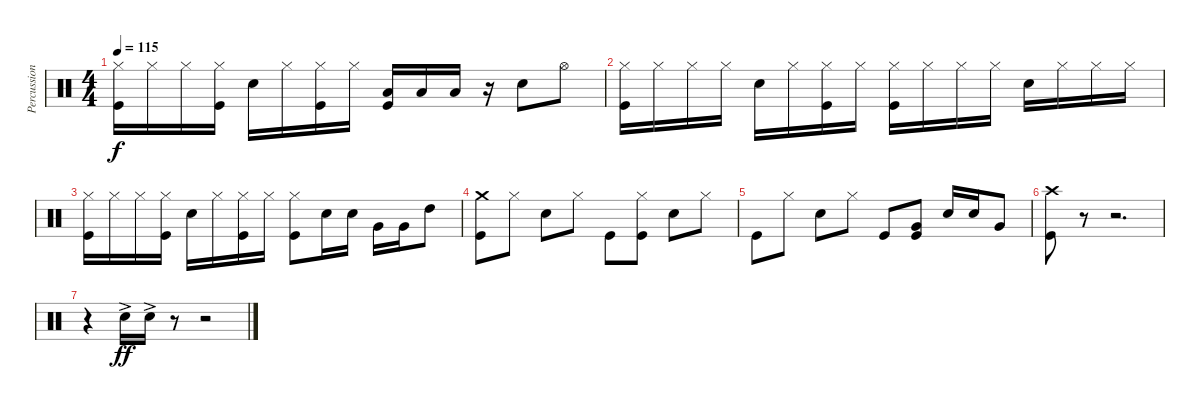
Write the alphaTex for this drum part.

\track ("Percussion" "Percussion") {instrument percussion}
\staff {score}
\articulation defaults
\ts (4 4)
\tempo 115
\clef neutral
\ks c
("Kick (hit)" "Hi-Hat (closed)").16{dy f} "Hi-Hat (closed)".16 "Hi-Hat (closed)".16 ("Kick (hit)" "Hi-Hat (closed)").16 "Snare (hit) 2".16 "Hi-Hat (closed)".16 ("Kick (hit)" "Hi-Hat (closed)").16 "Hi-Hat (closed)".16 ("Low Floor Tom (hit)" "Kick (hit)").16 "Low Floor Tom (hit)".16 "Low Floor Tom (hit)".16 r.16 "Snare (hit) 2".8 "Hi-Hat (open)".8 |
("Kick (hit)" "Hi-Hat (closed)").16 "Hi-Hat (closed)".16 "Hi-Hat (closed)".16 "Hi-Hat (closed)".16 "Snare (hit) 2".16 "Hi-Hat (closed)".16 ("Kick (hit)" "Hi-Hat (closed)").16 "Hi-Hat (closed)".16 ("Kick (hit)" "Hi-Hat (closed)").16 "Hi-Hat (closed)".16 "Hi-Hat (closed)".16 "Hi-Hat (closed)".16 "Snare (hit) 2".16 "Hi-Hat (closed)".16 "Hi-Hat (closed)".16 "Hi-Hat (closed)".16 |
("Kick (hit)" "Hi-Hat (closed)").16 "Hi-Hat (closed)".16 "Hi-Hat (closed)".16 ("Kick (hit)" "Hi-Hat (closed)").16 "Snare (hit) 2".16 "Hi-Hat (closed)".16 ("Kick (hit)" "Hi-Hat (closed)").16 "Hi-Hat (closed)".16 ("Kick (hit)" "Hi-Hat (closed)").8 "Snare (hit) 2".16 "Snare (hit) 2".16 "Very Low Tom (hit)".16 "Very Low Tom (hit)".16 "High Tom (hit)".8 |
("Crash medium (hit)" "Kick (hit)").8 "Hi-Hat (closed)".8 "Snare (hit) 2".8 "Hi-Hat (closed)".8 "Kick (hit)".8 ("Kick (hit)" "Hi-Hat (closed)").8 "Snare (hit) 2".8 "Hi-Hat (closed)".8 |
"Kick (hit)".8 "Hi-Hat (closed)".8 "Snare (hit) 2".8 "Hi-Hat (closed)".8 "Kick (hit)".8 ("Kick (hit)" "Very Low Tom (hit)").8 "Snare (hit) 2".16 "Snare (hit) 2".16 "Very Low Tom (hit)".8 |
("Kick (hit)" "Crash high (hit)").8 r.8 r.2{d} |
r.4 "Snare (hit) 2"{ac}.16{dy ff} "Snare (hit) 2"{ac}.16 r.8 r.2
